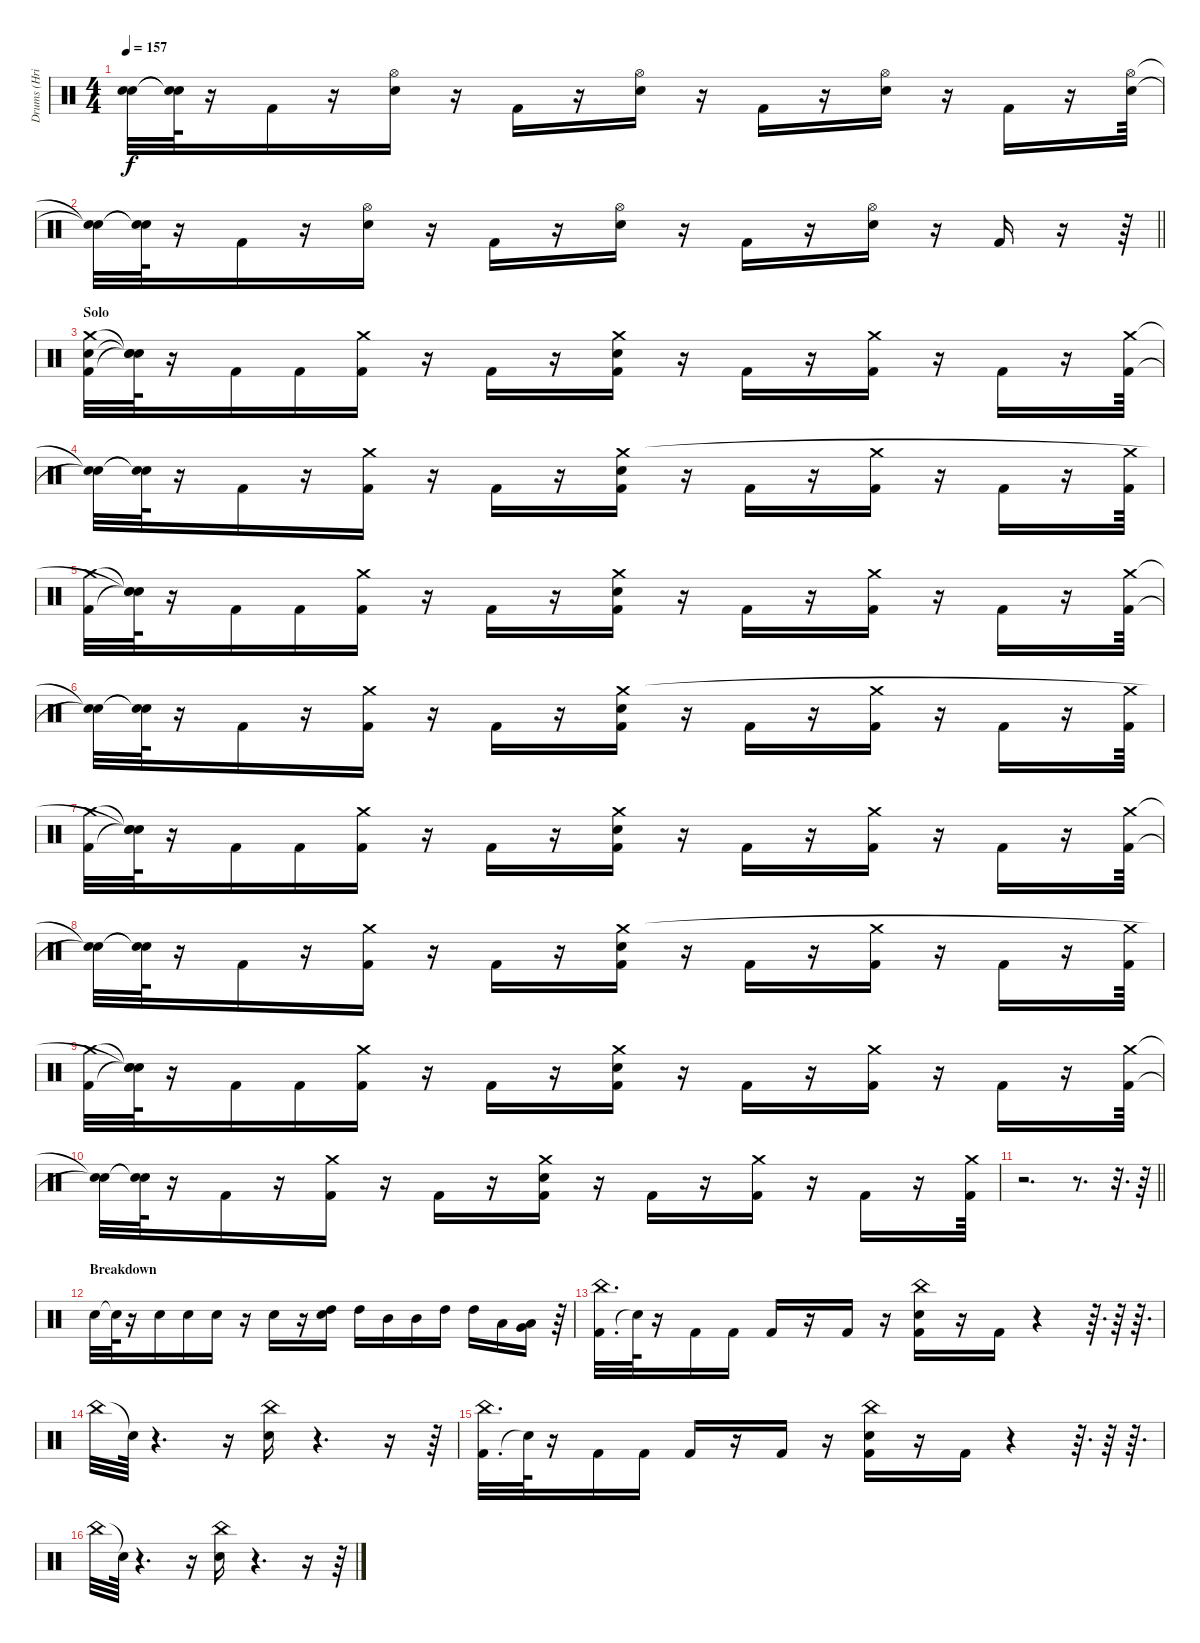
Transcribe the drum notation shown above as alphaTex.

\track ("Drums (Hriso)" "Drums (Hri") {instrument percussion}
\staff {score}
\articulation defaults
\ts (4 4)
\tempo 157
\clef neutral
\ks c
("Snare (hit)"{t} "Snare (hit)"{t}).32{dy f} ("Snare (hit)"{t} "Snare (hit)"{t}).64 r.16 "Kick (hit) 2".16 r.16 ("Snare (hit) 2" "Hi-Hat (open)").16 r.16 "Kick (hit) 2".16 r.16 ("Snare (hit) 2" "Hi-Hat (open)").16 r.16 "Kick (hit) 2".16 r.16 ("Snare (hit) 2" "Hi-Hat (open)").16 r.16 "Kick (hit) 2".16 r.16 ("Snare (hit) 2" "Hi-Hat (open)").64 |
\barLineRight lightlight
("Snare (hit)"{t} "Snare (hit)"{t}).32 ("Snare (hit)"{t} "Snare (hit)"{t}).64 r.16 "Kick (hit) 2".16 r.16 ("Snare (hit) 2" "Hi-Hat (open)").16 r.16 "Kick (hit) 2".16 r.16 ("Snare (hit) 2" "Hi-Hat (open)").16 r.16 "Kick (hit) 2".16 r.16 ("Snare (hit) 2" "Hi-Hat (open)").16 r.16 "Kick (hit) 2".16 r.16 r.64 |
\section ("" "Solo")
("Crash medium (hit)" "Kick (hit) 2" "Snare (hit) 2").32 ("Snare (hit)"{t} "Snare (hit)"{t} "Snare (hit)"{t}).64 r.16 "Kick (hit) 2".16 "Kick (hit) 2".16 ("Kick (hit) 2" "Crash medium (hit)").16 r.16 "Kick (hit) 2".16 r.16 ("Kick (hit) 2" "Crash medium (hit)" "Snare (hit) 2").16 r.16 "Kick (hit) 2".16 r.16 ("Kick (hit) 2" "Crash medium (hit)").16 r.16 "Kick (hit) 2".16 r.16 ("Kick (hit) 2" "Crash medium (hit)").64 |
("Snare (hit)"{t} "Snare (hit)"{t}).32 ("Snare (hit)"{t} "Snare (hit)"{t}).64 r.16 "Kick (hit) 2".16 r.16 ("Kick (hit) 2" "Crash medium (hit)").16 r.16 "Kick (hit) 2".16 r.16 ("Kick (hit) 2" "Snare (hit) 2" "Crash medium (hit)").16 r.16 "Kick (hit) 2".16 r.16 ("Kick (hit) 2" "Crash medium (hit)").16 r.16 "Kick (hit) 2".16 r.16 ("Kick (hit) 2" "Crash medium (hit)").64 |
("Crash medium (hit)" "Kick (hit) 2").32 ("Snare (hit)"{t} "Snare (hit)"{t} "Snare (hit)"{t}).64 r.16 "Kick (hit) 2".16 "Kick (hit) 2".16 ("Kick (hit) 2" "Crash medium (hit)").16 r.16 "Kick (hit) 2".16 r.16 ("Kick (hit) 2" "Crash medium (hit)" "Snare (hit) 2").16 r.16 "Kick (hit) 2".16 r.16 ("Kick (hit) 2" "Crash medium (hit)").16 r.16 "Kick (hit) 2".16 r.16 ("Kick (hit) 2" "Crash medium (hit)").64 |
("Snare (hit)"{t} "Snare (hit)"{t}).32 ("Snare (hit)"{t} "Snare (hit)"{t}).64 r.16 "Kick (hit) 2".16 r.16 ("Kick (hit) 2" "Crash medium (hit)").16 r.16 "Kick (hit) 2".16 r.16 ("Kick (hit) 2" "Snare (hit) 2" "Crash medium (hit)").16 r.16 "Kick (hit) 2".16 r.16 ("Kick (hit) 2" "Crash medium (hit)").16 r.16 "Kick (hit) 2".16 r.16 ("Kick (hit) 2" "Crash medium (hit)").64 |
("Crash medium (hit)" "Kick (hit) 2").32 ("Snare (hit)"{t} "Snare (hit)"{t} "Snare (hit)"{t}).64 r.16 "Kick (hit) 2".16 "Kick (hit) 2".16 ("Kick (hit) 2" "Crash medium (hit)").16 r.16 "Kick (hit) 2".16 r.16 ("Kick (hit) 2" "Crash medium (hit)" "Snare (hit) 2").16 r.16 "Kick (hit) 2".16 r.16 ("Kick (hit) 2" "Crash medium (hit)").16 r.16 "Kick (hit) 2".16 r.16 ("Kick (hit) 2" "Crash medium (hit)").64 |
("Snare (hit)"{t} "Snare (hit)"{t}).32 ("Snare (hit)"{t} "Snare (hit)"{t}).64 r.16 "Kick (hit) 2".16 r.16 ("Kick (hit) 2" "Crash medium (hit)").16 r.16 "Kick (hit) 2".16 r.16 ("Kick (hit) 2" "Snare (hit) 2" "Crash medium (hit)").16 r.16 "Kick (hit) 2".16 r.16 ("Kick (hit) 2" "Crash medium (hit)").16 r.16 "Kick (hit) 2".16 r.16 ("Kick (hit) 2" "Crash medium (hit)").64 |
("Crash medium (hit)" "Kick (hit) 2").32 ("Snare (hit)"{t} "Snare (hit)"{t} "Snare (hit)"{t}).64 r.16 "Kick (hit) 2".16 "Kick (hit) 2".16 ("Kick (hit) 2" "Crash medium (hit)").16 r.16 "Kick (hit) 2".16 r.16 ("Kick (hit) 2" "Crash medium (hit)" "Snare (hit) 2").16 r.16 "Kick (hit) 2".16 r.16 ("Kick (hit) 2" "Crash medium (hit)").16 r.16 "Kick (hit) 2".16 r.16 ("Kick (hit) 2" "Crash medium (hit)").64 |
("Snare (hit)"{t} "Snare (hit)"{t}).32 ("Snare (hit)"{t} "Snare (hit)"{t}).64 r.16 "Kick (hit) 2".16 r.16 ("Kick (hit) 2" "Crash medium (hit)").16 r.16 "Kick (hit) 2".16 r.16 ("Kick (hit) 2" "Snare (hit) 2" "Crash medium (hit)").16 r.16 "Kick (hit) 2".16 r.16 ("Kick (hit) 2" "Crash medium (hit)").16 r.16 "Kick (hit) 2".16 r.16 ("Kick (hit) 2" "Crash medium (hit)").64 |
\barLineRight lightlight
r.2{d} r.8{d} r.32{d} r.64 |
\section ("" "Breakdown")
"Snare (hit) 2".32 "Snare (hit)"{t}.64 r.16 "Snare (hit) 2".16 "Snare (hit) 2".16 "Snare (hit) 2".16 r.16 "Snare (hit) 2".16 r.16 ("Snare (hit) 2" "High Tom (hit)").16 "High Tom (hit)".16 "Mid Tom (hit)".16 "Mid Tom (hit)".16 "High Tom (hit)".16 "High Tom (hit)".16 "Low Tom (hit)".16 ("Low Tom (hit)" "Very Low Tom (hit)").16 r.64 |
("Kick (hit) 2" "China (hit)").32{d} "Snare (hit)"{t}.64 r.16 "Kick (hit) 2".16 "Kick (hit) 2".16 "Kick (hit) 2".16 r.16 "Kick (hit) 2".16 r.16 ("Kick (hit) 2" "Snare (hit) 2" "China (hit)").16 r.16 "Kick (hit) 2".16 r.4 r.64{d} r.64 r.64{d} |
"China (hit)".32 "Snare (hit)"{t}.64 r.4{d} r.16 ("Snare (hit) 2" "China (hit)").16 r.4{d} r.16 r.64 |
("Kick (hit) 2" "China (hit)").32{d} "Snare (hit)"{t}.64 r.16 "Kick (hit) 2".16 "Kick (hit) 2".16 "Kick (hit) 2".16 r.16 "Kick (hit) 2".16 r.16 ("Kick (hit) 2" "Snare (hit) 2" "China (hit)").16 r.16 "Kick (hit) 2".16 r.4 r.64{d} r.64 r.64{d} |
"China (hit)".32 "Snare (hit)"{t}.64 r.4{d} r.16 ("Snare (hit) 2" "China (hit)").16 r.4{d} r.16 r.64
